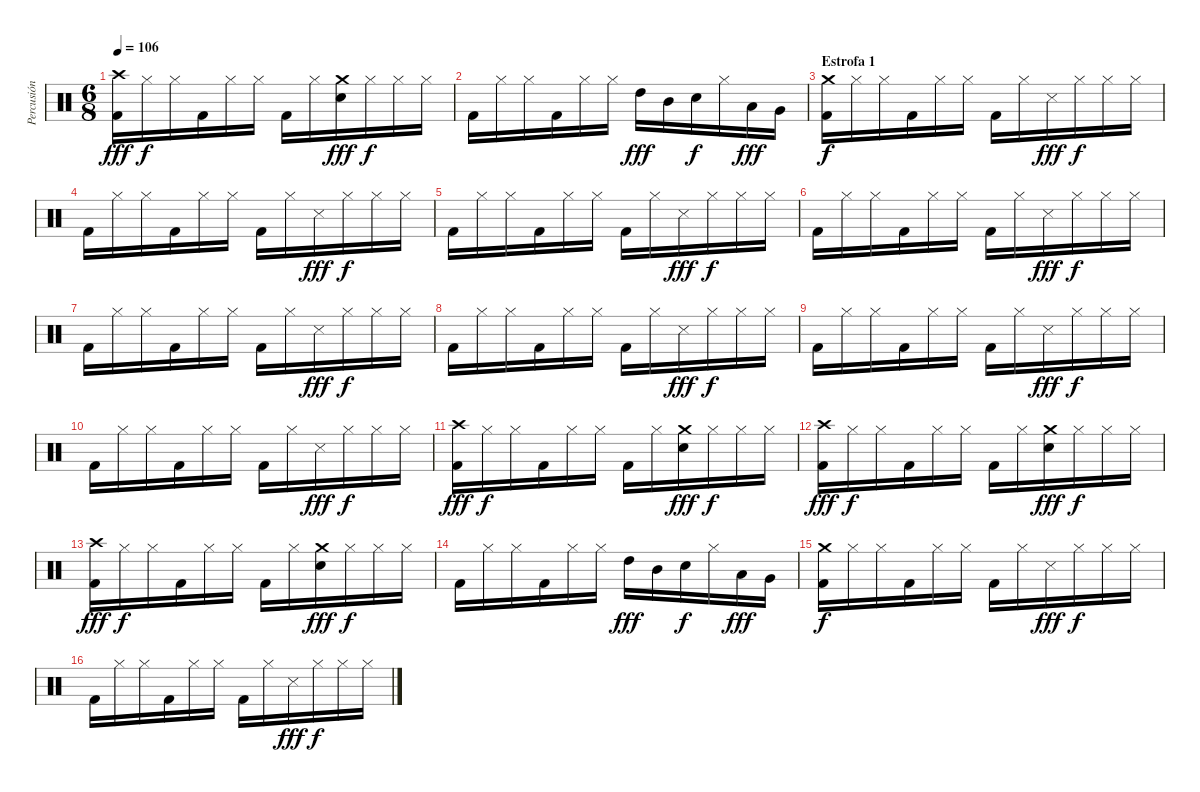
\track ("Percusión" "Percusión") {instrument percussion}
\staff {score}
\articulation defaults
\ts (6 8)
\tempo 106
\clef neutral
\ks c
("Kick (hit) 2" "Crash high (hit)").16{dy fff} "Hi-Hat (closed)".16{dy f} "Hi-Hat (closed)".16 "Kick (hit) 2".16 "Hi-Hat (closed)".16 "Hi-Hat (closed)".16 "Kick (hit) 2".16 "Hi-Hat (closed)".16 ("Snare (hit) 2" "Crash medium (hit)").16{dy fff} "Hi-Hat (closed)".16{dy f} "Hi-Hat (closed)".16 "Hi-Hat (closed)".16 |
"Kick (hit) 2".16 "Hi-Hat (closed)".16 "Hi-Hat (closed)".16 "Kick (hit) 2".16 "Hi-Hat (closed)".16 "Hi-Hat (closed)".16 "High Tom (hit)".16{dy fff} "Mid Tom (hit)".16 "Snare (hit) 2".16{dy f} "Hi-Hat (closed)".16 "Low Tom (hit)".16{dy fff} "Very Low Tom (hit)".16 |
\section ("" "Estrofa 1")
("Kick (hit) 2" "Crash medium (hit)").16{dy f} "Hi-Hat (closed)".16 "Hi-Hat (closed)".16 "Kick (hit) 2".16 "Hi-Hat (closed)".16 "Hi-Hat (closed)".16 "Kick (hit) 2".16 "Hi-Hat (closed)".16 "Snare (side stick) 3".16{dy fff} "Hi-Hat (closed)".16{dy f} "Hi-Hat (closed)".16 "Hi-Hat (closed)".16 |
"Kick (hit) 2".16 "Hi-Hat (closed)".16 "Hi-Hat (closed)".16 "Kick (hit) 2".16 "Hi-Hat (closed)".16 "Hi-Hat (closed)".16 "Kick (hit) 2".16 "Hi-Hat (closed)".16 "Snare (side stick) 3".16{dy fff} "Hi-Hat (closed)".16{dy f} "Hi-Hat (closed)".16 "Hi-Hat (closed)".16 |
"Kick (hit) 2".16 "Hi-Hat (closed)".16 "Hi-Hat (closed)".16 "Kick (hit) 2".16 "Hi-Hat (closed)".16 "Hi-Hat (closed)".16 "Kick (hit) 2".16 "Hi-Hat (closed)".16 "Snare (side stick) 3".16{dy fff} "Hi-Hat (closed)".16{dy f} "Hi-Hat (closed)".16 "Hi-Hat (closed)".16 |
"Kick (hit) 2".16 "Hi-Hat (closed)".16 "Hi-Hat (closed)".16 "Kick (hit) 2".16 "Hi-Hat (closed)".16 "Hi-Hat (closed)".16 "Kick (hit) 2".16 "Hi-Hat (closed)".16 "Snare (side stick) 3".16{dy fff} "Hi-Hat (closed)".16{dy f} "Hi-Hat (closed)".16 "Hi-Hat (closed)".16 |
"Kick (hit) 2".16 "Hi-Hat (closed)".16 "Hi-Hat (closed)".16 "Kick (hit) 2".16 "Hi-Hat (closed)".16 "Hi-Hat (closed)".16 "Kick (hit) 2".16 "Hi-Hat (closed)".16 "Snare (side stick) 3".16{dy fff} "Hi-Hat (closed)".16{dy f} "Hi-Hat (closed)".16 "Hi-Hat (closed)".16 |
"Kick (hit) 2".16 "Hi-Hat (closed)".16 "Hi-Hat (closed)".16 "Kick (hit) 2".16 "Hi-Hat (closed)".16 "Hi-Hat (closed)".16 "Kick (hit) 2".16 "Hi-Hat (closed)".16 "Snare (side stick) 3".16{dy fff} "Hi-Hat (closed)".16{dy f} "Hi-Hat (closed)".16 "Hi-Hat (closed)".16 |
"Kick (hit) 2".16 "Hi-Hat (closed)".16 "Hi-Hat (closed)".16 "Kick (hit) 2".16 "Hi-Hat (closed)".16 "Hi-Hat (closed)".16 "Kick (hit) 2".16 "Hi-Hat (closed)".16 "Snare (side stick) 3".16{dy fff} "Hi-Hat (closed)".16{dy f} "Hi-Hat (closed)".16 "Hi-Hat (closed)".16 |
"Kick (hit) 2".16 "Hi-Hat (closed)".16 "Hi-Hat (closed)".16 "Kick (hit) 2".16 "Hi-Hat (closed)".16 "Hi-Hat (closed)".16 "Kick (hit) 2".16 "Hi-Hat (closed)".16 "Snare (side stick) 3".16{dy fff} "Hi-Hat (closed)".16{dy f} "Hi-Hat (closed)".16 "Hi-Hat (closed)".16 |
("Kick (hit) 2" "Crash high (hit)").16{dy fff} "Hi-Hat (closed)".16{dy f} "Hi-Hat (closed)".16 "Kick (hit) 2".16 "Hi-Hat (closed)".16 "Hi-Hat (closed)".16 "Kick (hit) 2".16 "Hi-Hat (closed)".16 ("Snare (hit) 2" "Crash medium (hit)").16{dy fff} "Hi-Hat (closed)".16{dy f} "Hi-Hat (closed)".16 "Hi-Hat (closed)".16 |
("Kick (hit) 2" "Crash high (hit)").16{dy fff} "Hi-Hat (closed)".16{dy f} "Hi-Hat (closed)".16 "Kick (hit) 2".16 "Hi-Hat (closed)".16 "Hi-Hat (closed)".16 "Kick (hit) 2".16 "Hi-Hat (closed)".16 ("Snare (hit) 2" "Crash medium (hit)").16{dy fff} "Hi-Hat (closed)".16{dy f} "Hi-Hat (closed)".16 "Hi-Hat (closed)".16 |
("Kick (hit) 2" "Crash high (hit)").16{dy fff} "Hi-Hat (closed)".16{dy f} "Hi-Hat (closed)".16 "Kick (hit) 2".16 "Hi-Hat (closed)".16 "Hi-Hat (closed)".16 "Kick (hit) 2".16 "Hi-Hat (closed)".16 ("Snare (hit) 2" "Crash medium (hit)").16{dy fff} "Hi-Hat (closed)".16{dy f} "Hi-Hat (closed)".16 "Hi-Hat (closed)".16 |
"Kick (hit) 2".16 "Hi-Hat (closed)".16 "Hi-Hat (closed)".16 "Kick (hit) 2".16 "Hi-Hat (closed)".16 "Hi-Hat (closed)".16 "High Tom (hit)".16{dy fff} "Mid Tom (hit)".16 "Snare (hit) 2".16{dy f} "Hi-Hat (closed)".16 "Low Tom (hit)".16{dy fff} "Very Low Tom (hit)".16 |
("Kick (hit) 2" "Crash medium (hit)").16{dy f} "Hi-Hat (closed)".16 "Hi-Hat (closed)".16 "Kick (hit) 2".16 "Hi-Hat (closed)".16 "Hi-Hat (closed)".16 "Kick (hit) 2".16 "Hi-Hat (closed)".16 "Snare (side stick) 3".16{dy fff} "Hi-Hat (closed)".16{dy f} "Hi-Hat (closed)".16 "Hi-Hat (closed)".16 |
"Kick (hit) 2".16 "Hi-Hat (closed)".16 "Hi-Hat (closed)".16 "Kick (hit) 2".16 "Hi-Hat (closed)".16 "Hi-Hat (closed)".16 "Kick (hit) 2".16 "Hi-Hat (closed)".16 "Snare (side stick) 3".16{dy fff} "Hi-Hat (closed)".16{dy f} "Hi-Hat (closed)".16 "Hi-Hat (closed)".16
